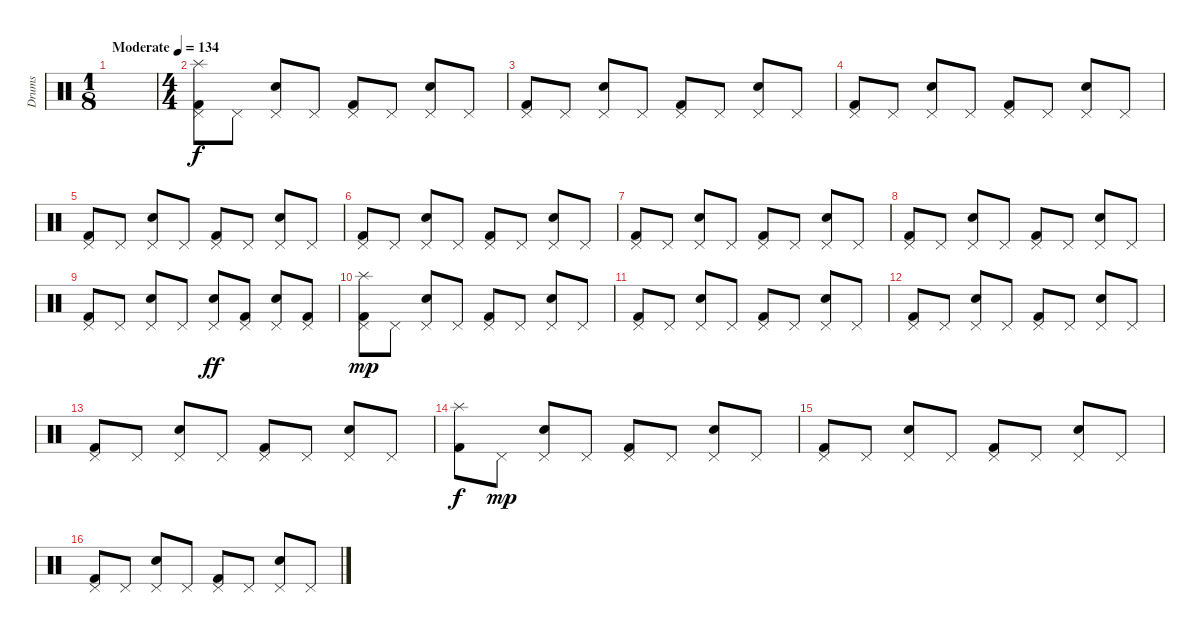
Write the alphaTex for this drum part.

\track ("Drums" "Drums") {instrument percussion}
\staff {score}
\articulation defaults
\ts (1 8)
\tempo (134 "Moderate")
\clef neutral
\ks c
|
\ts (4 4)
("Splash (hit)" "Pedal Hi-Hat (hit)" "Kick (hit) 2").8 "Pedal Hi-Hat (hit)".8 ("Pedal Hi-Hat (hit)" "Electric Snare (hit)").8 "Pedal Hi-Hat (hit)".8 ("Pedal Hi-Hat (hit)" "Kick (hit) 2").8 "Pedal Hi-Hat (hit)".8 ("Pedal Hi-Hat (hit)" "Electric Snare (hit)").8 "Pedal Hi-Hat (hit)".8 |
("Pedal Hi-Hat (hit)" "Kick (hit) 2").8 "Pedal Hi-Hat (hit)".8 ("Pedal Hi-Hat (hit)" "Electric Snare (hit)").8 "Pedal Hi-Hat (hit)".8 ("Pedal Hi-Hat (hit)" "Kick (hit) 2").8 "Pedal Hi-Hat (hit)".8 ("Pedal Hi-Hat (hit)" "Electric Snare (hit)").8 "Pedal Hi-Hat (hit)".8 |
("Pedal Hi-Hat (hit)" "Kick (hit) 2").8 "Pedal Hi-Hat (hit)".8 ("Pedal Hi-Hat (hit)" "Electric Snare (hit)").8 "Pedal Hi-Hat (hit)".8 ("Pedal Hi-Hat (hit)" "Kick (hit) 2").8 "Pedal Hi-Hat (hit)".8 ("Pedal Hi-Hat (hit)" "Electric Snare (hit)").8 "Pedal Hi-Hat (hit)".8 |
("Pedal Hi-Hat (hit)" "Kick (hit) 2").8 "Pedal Hi-Hat (hit)".8 ("Pedal Hi-Hat (hit)" "Electric Snare (hit)").8 "Pedal Hi-Hat (hit)".8 ("Pedal Hi-Hat (hit)" "Kick (hit) 2").8 "Pedal Hi-Hat (hit)".8 ("Pedal Hi-Hat (hit)" "Electric Snare (hit)").8 "Pedal Hi-Hat (hit)".8 |
("Pedal Hi-Hat (hit)" "Kick (hit) 2").8 "Pedal Hi-Hat (hit)".8 ("Pedal Hi-Hat (hit)" "Electric Snare (hit)").8 "Pedal Hi-Hat (hit)".8 ("Pedal Hi-Hat (hit)" "Kick (hit) 2").8 "Pedal Hi-Hat (hit)".8 ("Pedal Hi-Hat (hit)" "Electric Snare (hit)").8 "Pedal Hi-Hat (hit)".8 |
("Pedal Hi-Hat (hit)" "Kick (hit) 2").8 "Pedal Hi-Hat (hit)".8 ("Pedal Hi-Hat (hit)" "Electric Snare (hit)").8 "Pedal Hi-Hat (hit)".8 ("Pedal Hi-Hat (hit)" "Kick (hit) 2").8 "Pedal Hi-Hat (hit)".8 ("Pedal Hi-Hat (hit)" "Electric Snare (hit)").8 "Pedal Hi-Hat (hit)".8 |
("Pedal Hi-Hat (hit)" "Kick (hit) 2").8 "Pedal Hi-Hat (hit)".8 ("Pedal Hi-Hat (hit)" "Electric Snare (hit)").8 "Pedal Hi-Hat (hit)".8 ("Pedal Hi-Hat (hit)" "Kick (hit) 2").8 "Pedal Hi-Hat (hit)".8 ("Pedal Hi-Hat (hit)" "Electric Snare (hit)").8 "Pedal Hi-Hat (hit)".8 |
("Pedal Hi-Hat (hit)" "Kick (hit) 2").8 "Pedal Hi-Hat (hit)".8 ("Pedal Hi-Hat (hit)" "Electric Snare (hit)").8 "Pedal Hi-Hat (hit)".8 ("Pedal Hi-Hat (hit)" "Electric Snare (hit)").8{dy ff} ("Pedal Hi-Hat (hit)" "Kick (hit) 2").8 ("Pedal Hi-Hat (hit)" "Electric Snare (hit)").8 ("Pedal Hi-Hat (hit)" "Kick (hit) 2").8 |
("Splash (hit)" "Pedal Hi-Hat (hit)" "Kick (hit) 2").8{dy mp} "Pedal Hi-Hat (hit)".8 ("Pedal Hi-Hat (hit)" "Electric Snare (hit)").8 "Pedal Hi-Hat (hit)".8 ("Pedal Hi-Hat (hit)" "Kick (hit) 2").8 "Pedal Hi-Hat (hit)".8 ("Pedal Hi-Hat (hit)" "Electric Snare (hit)").8 "Pedal Hi-Hat (hit)".8 |
("Pedal Hi-Hat (hit)" "Kick (hit) 2").8 "Pedal Hi-Hat (hit)".8 ("Pedal Hi-Hat (hit)" "Electric Snare (hit)").8 "Pedal Hi-Hat (hit)".8 ("Pedal Hi-Hat (hit)" "Kick (hit) 2").8 "Pedal Hi-Hat (hit)".8 ("Pedal Hi-Hat (hit)" "Electric Snare (hit)").8 "Pedal Hi-Hat (hit)".8 |
("Pedal Hi-Hat (hit)" "Kick (hit) 2").8 "Pedal Hi-Hat (hit)".8 ("Pedal Hi-Hat (hit)" "Electric Snare (hit)").8 "Pedal Hi-Hat (hit)".8 ("Pedal Hi-Hat (hit)" "Kick (hit) 2").8 "Pedal Hi-Hat (hit)".8 ("Pedal Hi-Hat (hit)" "Electric Snare (hit)").8 "Pedal Hi-Hat (hit)".8 |
("Pedal Hi-Hat (hit)" "Kick (hit) 2").8 "Pedal Hi-Hat (hit)".8 ("Pedal Hi-Hat (hit)" "Electric Snare (hit)").8 "Pedal Hi-Hat (hit)".8 ("Pedal Hi-Hat (hit)" "Kick (hit) 2").8 "Pedal Hi-Hat (hit)".8 ("Pedal Hi-Hat (hit)" "Electric Snare (hit)").8 "Pedal Hi-Hat (hit)".8 |
("Splash (hit)" "Kick (hit) 2").8{dy f} "Pedal Hi-Hat (hit)".8{dy mp} ("Pedal Hi-Hat (hit)" "Electric Snare (hit)").8 "Pedal Hi-Hat (hit)".8 ("Pedal Hi-Hat (hit)" "Kick (hit) 2").8 "Pedal Hi-Hat (hit)".8 ("Pedal Hi-Hat (hit)" "Electric Snare (hit)").8 "Pedal Hi-Hat (hit)".8 |
("Pedal Hi-Hat (hit)" "Kick (hit) 2").8 "Pedal Hi-Hat (hit)".8 ("Pedal Hi-Hat (hit)" "Electric Snare (hit)").8 "Pedal Hi-Hat (hit)".8 ("Pedal Hi-Hat (hit)" "Kick (hit) 2").8 "Pedal Hi-Hat (hit)".8 ("Pedal Hi-Hat (hit)" "Electric Snare (hit)").8 "Pedal Hi-Hat (hit)".8 |
("Pedal Hi-Hat (hit)" "Kick (hit) 2").8 "Pedal Hi-Hat (hit)".8 ("Pedal Hi-Hat (hit)" "Electric Snare (hit)").8 "Pedal Hi-Hat (hit)".8 ("Pedal Hi-Hat (hit)" "Kick (hit) 2").8 "Pedal Hi-Hat (hit)".8 ("Pedal Hi-Hat (hit)" "Electric Snare (hit)").8 "Pedal Hi-Hat (hit)".8
